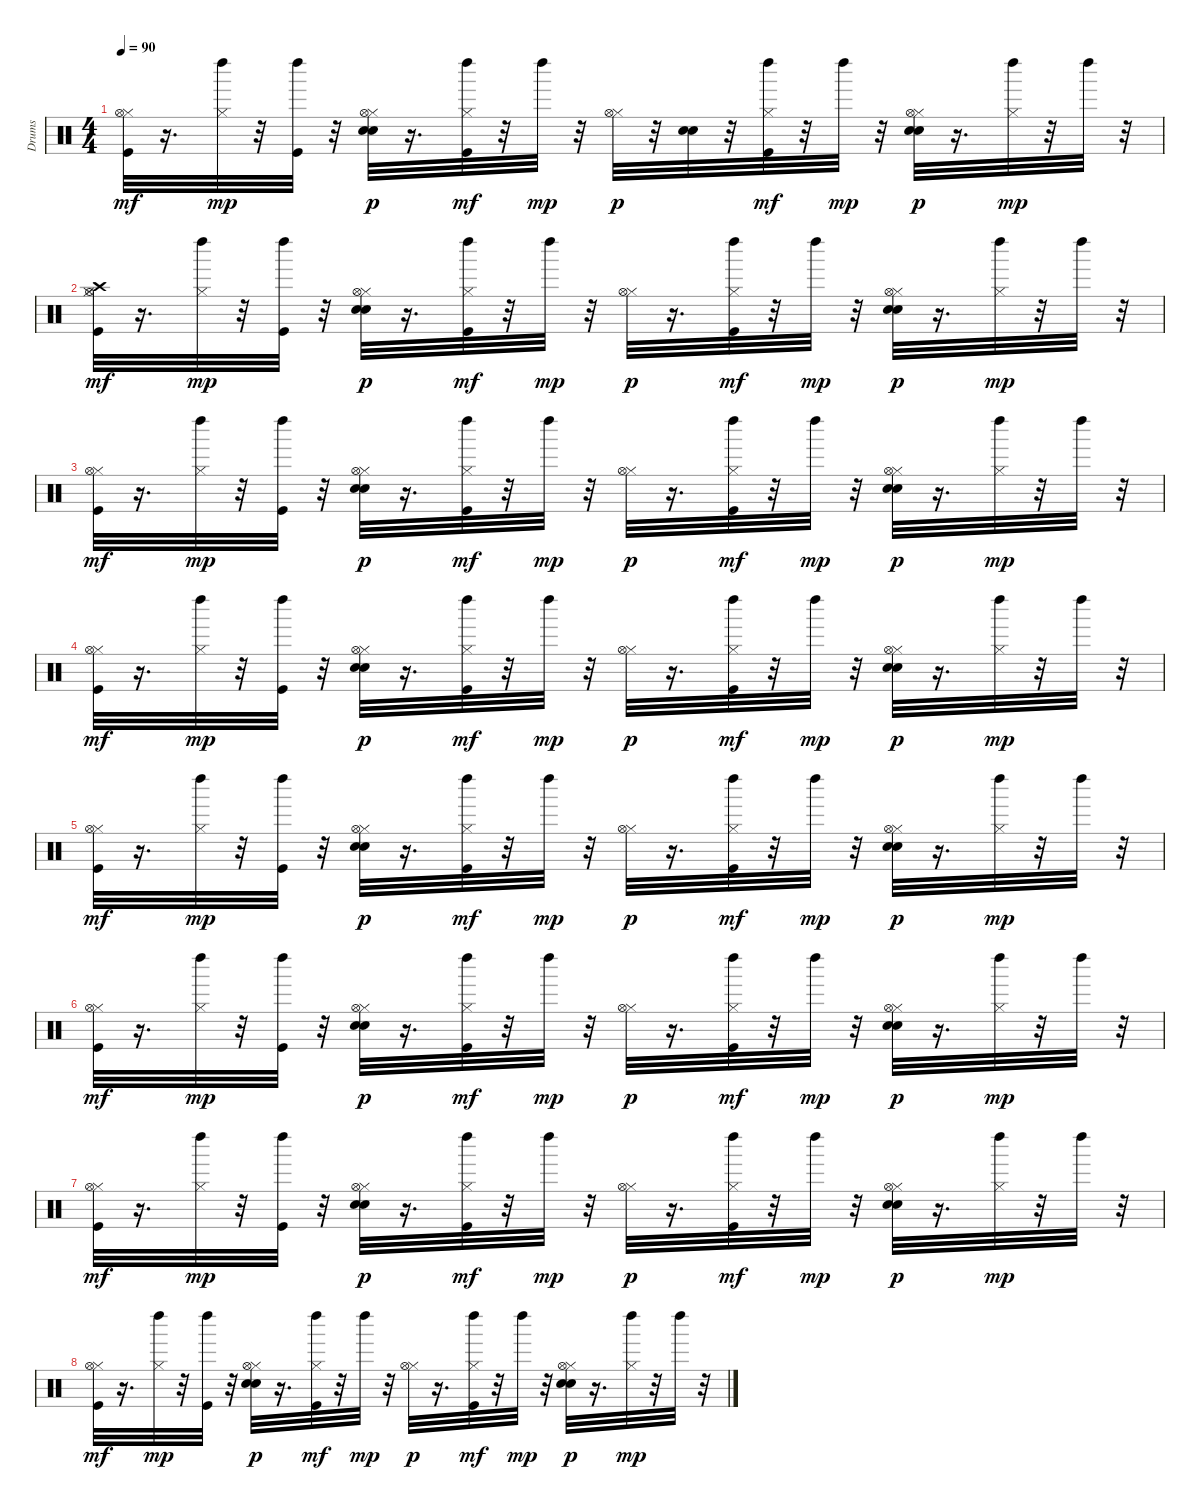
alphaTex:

\track ("Drums" "Drums") {instrument percussion}
\staff {score}
\articulation defaults
\ts (4 4)
\tempo 90
\clef neutral
\ks c
("Hi-Hat (closed)" "Hi-Hat (open)" "Kick (hit)").32{dy mf} r.16{d} ("Hi-Hat (closed)" "Left Maraca (hit)").32{dy mp} r.32 ("Kick (hit)" "Left Maraca (hit)").32 r.32 ("Snare (hit) 2" "Electric Snare (hit)" "Hi-Hat (closed)" "Hi-Hat (open)").32{dy p} r.16{d} ("Hi-Hat (closed)" "Left Maraca (hit)" "Kick (hit)").32{dy mf} r.32 "Left Maraca (hit)".32{dy mp} r.32 ("Hi-Hat (closed)" "Hi-Hat (open)").32{dy p} r.32 ("Electric Snare (hit)" "Snare (hit) 2").32 r.32 ("Hi-Hat (closed)" "Left Maraca (hit)" "Kick (hit)").32{dy mf} r.32 "Left Maraca (hit)".32{dy mp} r.32 ("Snare (hit) 2" "Electric Snare (hit)" "Hi-Hat (closed)" "Hi-Hat (open)").32{dy p} r.16{d} ("Hi-Hat (closed)" "Left Maraca (hit)").32{dy mp} r.32 "Left Maraca (hit)".32 r.32 |
("Crash high (hit)" "Hi-Hat (closed)" "Hi-Hat (open)" "Kick (hit)").32{dy mf} r.16{d} ("Hi-Hat (closed)" "Left Maraca (hit)").32{dy mp} r.32 ("Kick (hit)" "Left Maraca (hit)").32 r.32 ("Snare (hit) 2" "Electric Snare (hit)" "Hi-Hat (closed)" "Hi-Hat (open)").32{dy p} r.16{d} ("Hi-Hat (closed)" "Left Maraca (hit)" "Kick (hit)").32{dy mf} r.32 "Left Maraca (hit)".32{dy mp} r.32 ("Hi-Hat (closed)" "Hi-Hat (open)").32{dy p} r.16{d} ("Hi-Hat (closed)" "Left Maraca (hit)" "Kick (hit)").32{dy mf} r.32 "Left Maraca (hit)".32{dy mp} r.32 ("Snare (hit) 2" "Electric Snare (hit)" "Hi-Hat (closed)" "Hi-Hat (open)").32{dy p} r.16{d} ("Hi-Hat (closed)" "Left Maraca (hit)").32{dy mp} r.32 "Left Maraca (hit)".32 r.32 |
("Hi-Hat (closed)" "Hi-Hat (open)" "Kick (hit)").32{dy mf} r.16{d} ("Hi-Hat (closed)" "Left Maraca (hit)").32{dy mp} r.32 ("Kick (hit)" "Left Maraca (hit)").32 r.32 ("Snare (hit) 2" "Electric Snare (hit)" "Hi-Hat (closed)" "Hi-Hat (open)").32{dy p} r.16{d} ("Hi-Hat (closed)" "Left Maraca (hit)" "Kick (hit)").32{dy mf} r.32 "Left Maraca (hit)".32{dy mp} r.32 ("Hi-Hat (closed)" "Hi-Hat (open)").32{dy p} r.16{d} ("Hi-Hat (closed)" "Left Maraca (hit)" "Kick (hit)").32{dy mf} r.32 "Left Maraca (hit)".32{dy mp} r.32 ("Snare (hit) 2" "Electric Snare (hit)" "Hi-Hat (closed)" "Hi-Hat (open)").32{dy p} r.16{d} ("Hi-Hat (closed)" "Left Maraca (hit)").32{dy mp} r.32 "Left Maraca (hit)".32 r.32 |
("Hi-Hat (closed)" "Hi-Hat (open)" "Kick (hit)").32{dy mf} r.16{d} ("Hi-Hat (closed)" "Left Maraca (hit)").32{dy mp} r.32 ("Kick (hit)" "Left Maraca (hit)").32 r.32 ("Snare (hit) 2" "Electric Snare (hit)" "Hi-Hat (closed)" "Hi-Hat (open)").32{dy p} r.16{d} ("Hi-Hat (closed)" "Left Maraca (hit)" "Kick (hit)").32{dy mf} r.32 "Left Maraca (hit)".32{dy mp} r.32 ("Hi-Hat (closed)" "Hi-Hat (open)").32{dy p} r.16{d} ("Hi-Hat (closed)" "Left Maraca (hit)" "Kick (hit)").32{dy mf} r.32 "Left Maraca (hit)".32{dy mp} r.32 ("Snare (hit) 2" "Electric Snare (hit)" "Hi-Hat (closed)" "Hi-Hat (open)").32{dy p} r.16{d} ("Hi-Hat (closed)" "Left Maraca (hit)").32{dy mp} r.32 "Left Maraca (hit)".32 r.32 |
("Hi-Hat (closed)" "Hi-Hat (open)" "Kick (hit)").32{dy mf} r.16{d} ("Hi-Hat (closed)" "Left Maraca (hit)").32{dy mp} r.32 ("Kick (hit)" "Left Maraca (hit)").32 r.32 ("Snare (hit) 2" "Electric Snare (hit)" "Hi-Hat (closed)" "Hi-Hat (open)").32{dy p} r.16{d} ("Hi-Hat (closed)" "Left Maraca (hit)" "Kick (hit)").32{dy mf} r.32 "Left Maraca (hit)".32{dy mp} r.32 ("Hi-Hat (closed)" "Hi-Hat (open)").32{dy p} r.16{d} ("Hi-Hat (closed)" "Left Maraca (hit)" "Kick (hit)").32{dy mf} r.32 "Left Maraca (hit)".32{dy mp} r.32 ("Snare (hit) 2" "Electric Snare (hit)" "Hi-Hat (closed)" "Hi-Hat (open)").32{dy p} r.16{d} ("Hi-Hat (closed)" "Left Maraca (hit)").32{dy mp} r.32 "Left Maraca (hit)".32 r.32 |
("Hi-Hat (closed)" "Hi-Hat (open)" "Kick (hit)").32{dy mf} r.16{d} ("Hi-Hat (closed)" "Left Maraca (hit)").32{dy mp} r.32 ("Kick (hit)" "Left Maraca (hit)").32 r.32 ("Snare (hit) 2" "Electric Snare (hit)" "Hi-Hat (closed)" "Hi-Hat (open)").32{dy p} r.16{d} ("Hi-Hat (closed)" "Left Maraca (hit)" "Kick (hit)").32{dy mf} r.32 "Left Maraca (hit)".32{dy mp} r.32 ("Hi-Hat (closed)" "Hi-Hat (open)").32{dy p} r.16{d} ("Hi-Hat (closed)" "Left Maraca (hit)" "Kick (hit)").32{dy mf} r.32 "Left Maraca (hit)".32{dy mp} r.32 ("Snare (hit) 2" "Electric Snare (hit)" "Hi-Hat (closed)" "Hi-Hat (open)").32{dy p} r.16{d} ("Hi-Hat (closed)" "Left Maraca (hit)").32{dy mp} r.32 "Left Maraca (hit)".32 r.32 |
("Hi-Hat (closed)" "Hi-Hat (open)" "Kick (hit)").32{dy mf} r.16{d} ("Hi-Hat (closed)" "Left Maraca (hit)").32{dy mp} r.32 ("Kick (hit)" "Left Maraca (hit)").32 r.32 ("Snare (hit) 2" "Electric Snare (hit)" "Hi-Hat (closed)" "Hi-Hat (open)").32{dy p} r.16{d} ("Hi-Hat (closed)" "Left Maraca (hit)" "Kick (hit)").32{dy mf} r.32 "Left Maraca (hit)".32{dy mp} r.32 ("Hi-Hat (closed)" "Hi-Hat (open)").32{dy p} r.16{d} ("Hi-Hat (closed)" "Left Maraca (hit)" "Kick (hit)").32{dy mf} r.32 "Left Maraca (hit)".32{dy mp} r.32 ("Snare (hit) 2" "Electric Snare (hit)" "Hi-Hat (closed)" "Hi-Hat (open)").32{dy p} r.16{d} ("Hi-Hat (closed)" "Left Maraca (hit)").32{dy mp} r.32 "Left Maraca (hit)".32 r.32 |
("Hi-Hat (closed)" "Hi-Hat (open)" "Kick (hit)").32{dy mf} r.16{d} ("Hi-Hat (closed)" "Left Maraca (hit)").32{dy mp} r.32 ("Kick (hit)" "Left Maraca (hit)").32 r.32 ("Snare (hit) 2" "Electric Snare (hit)" "Hi-Hat (closed)" "Hi-Hat (open)").32{dy p} r.16{d} ("Hi-Hat (closed)" "Left Maraca (hit)" "Kick (hit)").32{dy mf} r.32 "Left Maraca (hit)".32{dy mp} r.32 ("Hi-Hat (closed)" "Hi-Hat (open)").32{dy p} r.16{d} ("Hi-Hat (closed)" "Left Maraca (hit)" "Kick (hit)").32{dy mf} r.32 "Left Maraca (hit)".32{dy mp} r.32 ("Snare (hit) 2" "Electric Snare (hit)" "Hi-Hat (closed)" "Hi-Hat (open)").32{dy p} r.16{d} ("Hi-Hat (closed)" "Left Maraca (hit)").32{dy mp} r.32 "Left Maraca (hit)".32 r.32
